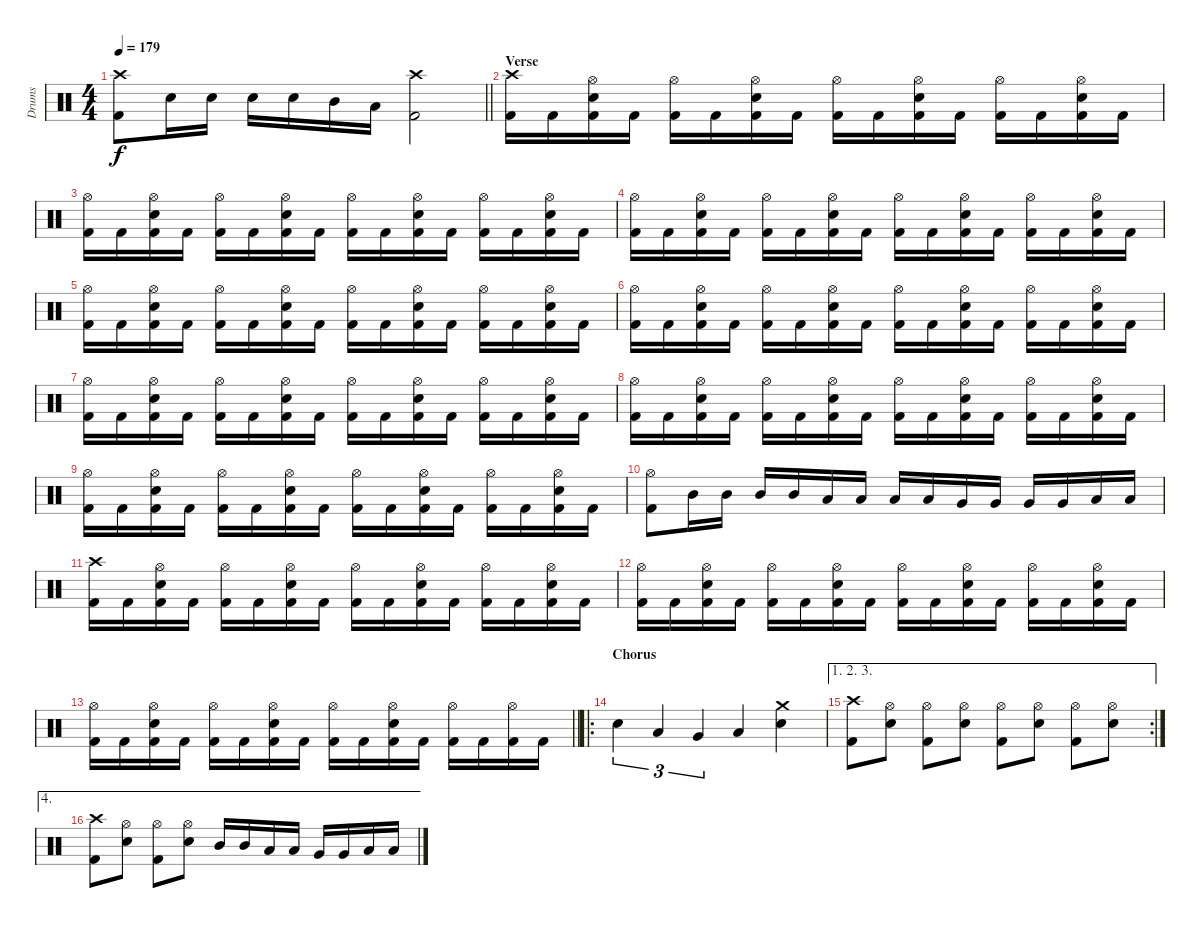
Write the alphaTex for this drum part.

\track ("Drums" "Drums") {instrument percussion}
\staff {score}
\articulation defaults
\ts (4 4)
\tempo 179
\clef neutral
\barLineRight lightlight
\ks c
("Crash high (hit)" "Kick (hit) 2").8{dy f} "Electric Snare (hit)".16 "Electric Snare (hit)".16 "Electric Snare (hit)".16 "Electric Snare (hit)".16 "Mid Tom (hit)".16 "Low Tom (hit)".16 ("Crash high (hit)" "Kick (hit) 2").2 |
\section ("" "Verse")
("Crash high (hit)" "Kick (hit) 2").16 "Kick (hit) 2".16 ("Hi-Hat (open)" "Electric Snare (hit)" "Kick (hit) 2").16 "Kick (hit) 2".16 ("Hi-Hat (open)" "Kick (hit) 2").16 "Kick (hit) 2".16 ("Hi-Hat (open)" "Electric Snare (hit)" "Kick (hit) 2").16 "Kick (hit) 2".16 ("Hi-Hat (open)" "Kick (hit) 2").16 "Kick (hit) 2".16 ("Hi-Hat (open)" "Electric Snare (hit)" "Kick (hit) 2").16 "Kick (hit) 2".16 ("Hi-Hat (open)" "Kick (hit) 2").16 "Kick (hit) 2".16 ("Hi-Hat (open)" "Electric Snare (hit)" "Kick (hit) 2").16 "Kick (hit) 2".16 |
("Hi-Hat (open)" "Kick (hit) 2").16 "Kick (hit) 2".16 ("Hi-Hat (open)" "Electric Snare (hit)" "Kick (hit) 2").16 "Kick (hit) 2".16 ("Hi-Hat (open)" "Kick (hit) 2").16 "Kick (hit) 2".16 ("Hi-Hat (open)" "Electric Snare (hit)" "Kick (hit) 2").16 "Kick (hit) 2".16 ("Hi-Hat (open)" "Kick (hit) 2").16 "Kick (hit) 2".16 ("Hi-Hat (open)" "Electric Snare (hit)" "Kick (hit) 2").16 "Kick (hit) 2".16 ("Hi-Hat (open)" "Kick (hit) 2").16 "Kick (hit) 2".16 ("Hi-Hat (open)" "Electric Snare (hit)" "Kick (hit) 2").16 "Kick (hit) 2".16 |
("Hi-Hat (open)" "Kick (hit) 2").16 "Kick (hit) 2".16 ("Hi-Hat (open)" "Electric Snare (hit)" "Kick (hit) 2").16 "Kick (hit) 2".16 ("Hi-Hat (open)" "Kick (hit) 2").16 "Kick (hit) 2".16 ("Hi-Hat (open)" "Electric Snare (hit)" "Kick (hit) 2").16 "Kick (hit) 2".16 ("Hi-Hat (open)" "Kick (hit) 2").16 "Kick (hit) 2".16 ("Hi-Hat (open)" "Electric Snare (hit)" "Kick (hit) 2").16 "Kick (hit) 2".16 ("Hi-Hat (open)" "Kick (hit) 2").16 "Kick (hit) 2".16 ("Hi-Hat (open)" "Electric Snare (hit)" "Kick (hit) 2").16 "Kick (hit) 2".16 |
("Hi-Hat (open)" "Kick (hit) 2").16 "Kick (hit) 2".16 ("Hi-Hat (open)" "Electric Snare (hit)" "Kick (hit) 2").16 "Kick (hit) 2".16 ("Hi-Hat (open)" "Kick (hit) 2").16 "Kick (hit) 2".16 ("Hi-Hat (open)" "Electric Snare (hit)" "Kick (hit) 2").16 "Kick (hit) 2".16 ("Hi-Hat (open)" "Kick (hit) 2").16 "Kick (hit) 2".16 ("Hi-Hat (open)" "Electric Snare (hit)" "Kick (hit) 2").16 "Kick (hit) 2".16 ("Hi-Hat (open)" "Kick (hit) 2").16 "Kick (hit) 2".16 ("Hi-Hat (open)" "Electric Snare (hit)" "Kick (hit) 2").16 "Kick (hit) 2".16 |
("Hi-Hat (open)" "Kick (hit) 2").16 "Kick (hit) 2".16 ("Hi-Hat (open)" "Electric Snare (hit)" "Kick (hit) 2").16 "Kick (hit) 2".16 ("Hi-Hat (open)" "Kick (hit) 2").16 "Kick (hit) 2".16 ("Hi-Hat (open)" "Electric Snare (hit)" "Kick (hit) 2").16 "Kick (hit) 2".16 ("Hi-Hat (open)" "Kick (hit) 2").16 "Kick (hit) 2".16 ("Hi-Hat (open)" "Electric Snare (hit)" "Kick (hit) 2").16 "Kick (hit) 2".16 ("Hi-Hat (open)" "Kick (hit) 2").16 "Kick (hit) 2".16 ("Hi-Hat (open)" "Electric Snare (hit)" "Kick (hit) 2").16 "Kick (hit) 2".16 |
("Hi-Hat (open)" "Kick (hit) 2").16 "Kick (hit) 2".16 ("Hi-Hat (open)" "Electric Snare (hit)" "Kick (hit) 2").16 "Kick (hit) 2".16 ("Hi-Hat (open)" "Kick (hit) 2").16 "Kick (hit) 2".16 ("Hi-Hat (open)" "Electric Snare (hit)" "Kick (hit) 2").16 "Kick (hit) 2".16 ("Hi-Hat (open)" "Kick (hit) 2").16 "Kick (hit) 2".16 ("Hi-Hat (open)" "Electric Snare (hit)" "Kick (hit) 2").16 "Kick (hit) 2".16 ("Hi-Hat (open)" "Kick (hit) 2").16 "Kick (hit) 2".16 ("Hi-Hat (open)" "Electric Snare (hit)" "Kick (hit) 2").16 "Kick (hit) 2".16 |
("Hi-Hat (open)" "Kick (hit) 2").16 "Kick (hit) 2".16 ("Hi-Hat (open)" "Electric Snare (hit)" "Kick (hit) 2").16 "Kick (hit) 2".16 ("Hi-Hat (open)" "Kick (hit) 2").16 "Kick (hit) 2".16 ("Hi-Hat (open)" "Electric Snare (hit)" "Kick (hit) 2").16 "Kick (hit) 2".16 ("Hi-Hat (open)" "Kick (hit) 2").16 "Kick (hit) 2".16 ("Hi-Hat (open)" "Electric Snare (hit)" "Kick (hit) 2").16 "Kick (hit) 2".16 ("Hi-Hat (open)" "Kick (hit) 2").16 "Kick (hit) 2".16 ("Hi-Hat (open)" "Electric Snare (hit)" "Kick (hit) 2").16 "Kick (hit) 2".16 |
("Hi-Hat (open)" "Kick (hit) 2").16 "Kick (hit) 2".16 ("Hi-Hat (open)" "Electric Snare (hit)" "Kick (hit) 2").16 "Kick (hit) 2".16 ("Hi-Hat (open)" "Kick (hit) 2").16 "Kick (hit) 2".16 ("Hi-Hat (open)" "Electric Snare (hit)" "Kick (hit) 2").16 "Kick (hit) 2".16 ("Hi-Hat (open)" "Kick (hit) 2").16 "Kick (hit) 2".16 ("Hi-Hat (open)" "Electric Snare (hit)" "Kick (hit) 2").16 "Kick (hit) 2".16 ("Hi-Hat (open)" "Kick (hit) 2").16 "Kick (hit) 2".16 ("Hi-Hat (open)" "Electric Snare (hit)" "Kick (hit) 2").16 "Kick (hit) 2".16 |
("Hi-Hat (open)" "Kick (hit) 2").8 "Mid Tom (hit)".16 "Mid Tom (hit)".16 "Mid Tom (hit)".16 "Mid Tom (hit)".16 "Low Tom (hit)".16 "Low Tom (hit)".16 "Low Tom (hit)".16 "Low Tom (hit)".16 "Very Low Tom (hit)".16 "Very Low Tom (hit)".16 "Very Low Tom (hit)".16 "Very Low Tom (hit)".16 "Low Floor Tom (hit)".16 "Low Floor Tom (hit)".16 |
("Crash high (hit)" "Kick (hit) 2").16 "Kick (hit) 2".16 ("Hi-Hat (open)" "Electric Snare (hit)" "Kick (hit) 2").16 "Kick (hit) 2".16 ("Hi-Hat (open)" "Kick (hit) 2").16 "Kick (hit) 2".16 ("Hi-Hat (open)" "Electric Snare (hit)" "Kick (hit) 2").16 "Kick (hit) 2".16 ("Hi-Hat (open)" "Kick (hit) 2").16 "Kick (hit) 2".16 ("Hi-Hat (open)" "Electric Snare (hit)" "Kick (hit) 2").16 "Kick (hit) 2".16 ("Hi-Hat (open)" "Kick (hit) 2").16 "Kick (hit) 2".16 ("Hi-Hat (open)" "Electric Snare (hit)" "Kick (hit) 2").16 "Kick (hit) 2".16 |
("Hi-Hat (open)" "Kick (hit) 2").16 "Kick (hit) 2".16 ("Hi-Hat (open)" "Electric Snare (hit)" "Kick (hit) 2").16 "Kick (hit) 2".16 ("Hi-Hat (open)" "Kick (hit) 2").16 "Kick (hit) 2".16 ("Hi-Hat (open)" "Electric Snare (hit)" "Kick (hit) 2").16 "Kick (hit) 2".16 ("Hi-Hat (open)" "Kick (hit) 2").16 "Kick (hit) 2".16 ("Hi-Hat (open)" "Electric Snare (hit)" "Kick (hit) 2").16 "Kick (hit) 2".16 ("Hi-Hat (open)" "Kick (hit) 2").16 "Kick (hit) 2".16 ("Hi-Hat (open)" "Electric Snare (hit)" "Kick (hit) 2").16 "Kick (hit) 2".16 |
\barLineRight lightlight
("Hi-Hat (open)" "Kick (hit) 2").16 "Kick (hit) 2".16 ("Hi-Hat (open)" "Electric Snare (hit)" "Kick (hit) 2").16 "Kick (hit) 2".16 ("Hi-Hat (open)" "Kick (hit) 2").16 "Kick (hit) 2".16 ("Hi-Hat (open)" "Electric Snare (hit)" "Kick (hit) 2").16 "Kick (hit) 2".16 ("Hi-Hat (open)" "Kick (hit) 2").16 "Kick (hit) 2".16 ("Hi-Hat (open)" "Electric Snare (hit)" "Kick (hit) 2").16 "Kick (hit) 2".16 ("Hi-Hat (open)" "Kick (hit) 2").16 "Kick (hit) 2".16 ("Hi-Hat (open)" "Kick (hit) 2").16 "Kick (hit) 2".16 |
\ro
\section ("" "Chorus")
"Electric Snare (hit)".4{tu (3 2)} "Low Tom (hit)".4{tu (3 2)} "Very Low Tom (hit)".4{tu (3 2)} "Low Floor Tom (hit)".4 ("Crash medium (hit)" "Electric Snare (hit)").4 |
\ae (1 2 3)
\rc 2
("Crash high (hit)" "Kick (hit) 2").8 ("Hi-Hat (open)" "Electric Snare (hit)").8 ("Hi-Hat (open)" "Kick (hit) 2").8 ("Hi-Hat (open)" "Electric Snare (hit)").8 ("Hi-Hat (open)" "Kick (hit) 2").8 ("Hi-Hat (open)" "Electric Snare (hit)").8 ("Hi-Hat (open)" "Kick (hit) 2").8 ("Hi-Hat (open)" "Electric Snare (hit)").8 |
\ae 4
("Crash high (hit)" "Kick (hit) 2").8 ("Hi-Hat (open)" "Electric Snare (hit)").8 ("Hi-Hat (open)" "Kick (hit) 2").8 ("Hi-Hat (open)" "Electric Snare (hit)").8 "Mid Tom (hit)".16 "Mid Tom (hit)".16 "Low Tom (hit)".16 "Low Tom (hit)".16 "Very Low Tom (hit)".16 "Very Low Tom (hit)".16 "Low Floor Tom (hit)".16 "Low Floor Tom (hit)".16
